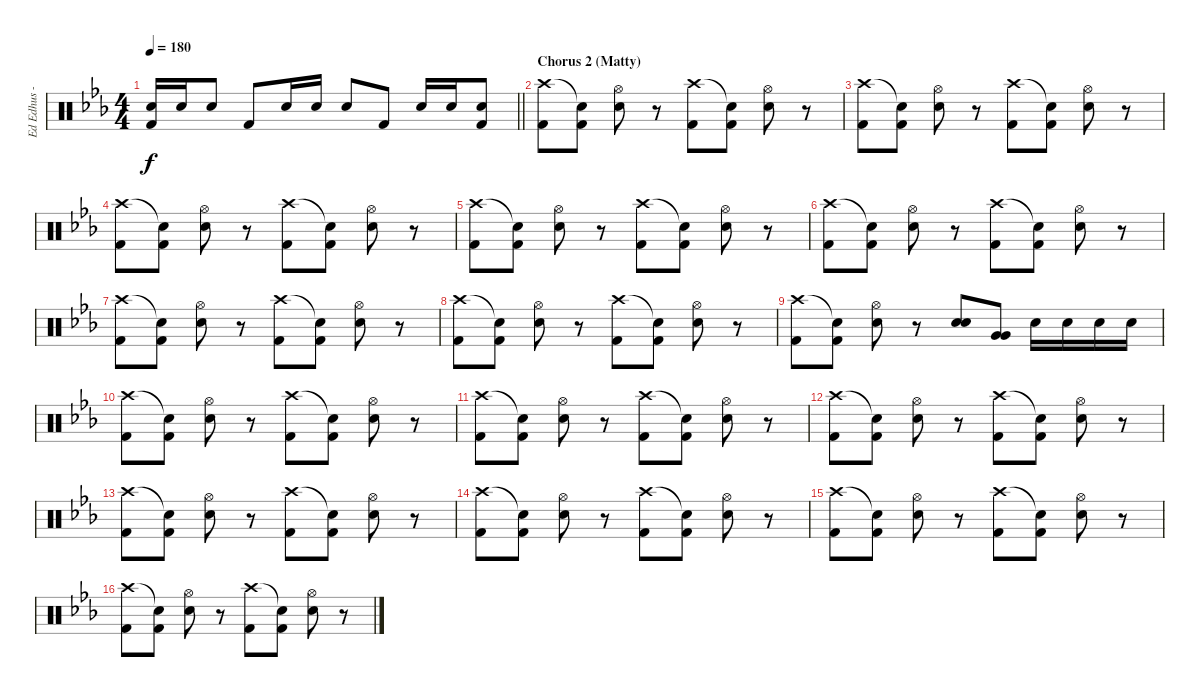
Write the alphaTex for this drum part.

\track ("Ed Edhus - Drums" "Ed Edhus -") {instrument percussion bank 127}
\staff {score}
\articulation defaults
\ts (4 4)
\tempo 180
\clef neutral
\barLineRight lightlight
\ks eb
("Snare (hit) 2" "Kick (hit) 2").16{dy f} "Snare (hit) 2".16 "Snare (hit) 2".8 "Kick (hit) 2".8 "Snare (hit) 2".16 "Snare (hit) 2".16 "Snare (hit) 2".8 "Kick (hit) 2".8 "Snare (hit) 2".16 "Snare (hit) 2".16 ("Snare (hit) 2" "Kick (hit) 2").8 |
\section ("" "Chorus 2 (Matty)")
("Crash high (hit)" "Kick (hit) 2").8 ("Snare (hit)"{t} "Kick (hit) 2").8 ("Hi-Hat (open)" "Snare (hit) 2").8 r.8 ("Crash high (hit)" "Kick (hit) 2").8 ("Snare (hit)"{t} "Kick (hit) 2").8 ("Hi-Hat (open)" "Snare (hit) 2").8 r.8 |
("Crash high (hit)" "Kick (hit) 2").8 ("Snare (hit)"{t} "Kick (hit) 2").8 ("Hi-Hat (open)" "Snare (hit) 2").8 r.8 ("Crash high (hit)" "Kick (hit) 2").8 ("Snare (hit)"{t} "Kick (hit) 2").8 ("Hi-Hat (open)" "Snare (hit) 2").8 r.8 |
("Crash high (hit)" "Kick (hit) 2").8 ("Snare (hit)"{t} "Kick (hit) 2").8 ("Hi-Hat (open)" "Snare (hit) 2").8 r.8 ("Crash high (hit)" "Kick (hit) 2").8 ("Snare (hit)"{t} "Kick (hit) 2").8 ("Hi-Hat (open)" "Snare (hit) 2").8 r.8 |
("Crash high (hit)" "Kick (hit) 2").8 ("Snare (hit)"{t} "Kick (hit) 2").8 ("Hi-Hat (open)" "Snare (hit) 2").8 r.8 ("Crash high (hit)" "Kick (hit) 2").8 ("Snare (hit)"{t} "Kick (hit) 2").8 ("Hi-Hat (open)" "Snare (hit) 2").8 r.8 |
("Crash high (hit)" "Kick (hit) 2").8 ("Snare (hit)"{t} "Kick (hit) 2").8 ("Hi-Hat (open)" "Snare (hit) 2").8 r.8 ("Crash high (hit)" "Kick (hit) 2").8 ("Snare (hit)"{t} "Kick (hit) 2").8 ("Hi-Hat (open)" "Snare (hit) 2").8 r.8 |
("Crash high (hit)" "Kick (hit) 2").8 ("Snare (hit)"{t} "Kick (hit) 2").8 ("Hi-Hat (open)" "Snare (hit) 2").8 r.8 ("Crash high (hit)" "Kick (hit) 2").8 ("Snare (hit)"{t} "Kick (hit) 2").8 ("Hi-Hat (open)" "Snare (hit) 2").8 r.8 |
("Crash high (hit)" "Kick (hit) 2").8 ("Snare (hit)"{t} "Kick (hit) 2").8 ("Hi-Hat (open)" "Snare (hit) 2").8 r.8 ("Crash high (hit)" "Kick (hit) 2").8 ("Snare (hit)"{t} "Kick (hit) 2").8 ("Hi-Hat (open)" "Snare (hit) 2").8 r.8 |
("Crash high (hit)" "Kick (hit) 2").8 ("Snare (hit)"{t} "Kick (hit) 2").8 ("Hi-Hat (open)" "Snare (hit) 2").8 r.8 ("Snare (hit) 2" "Snare (hit) 2").8 ("Very Low Tom (hit)" "Very Low Tom (hit)").8 "Snare (hit) 2".16 "Snare (hit) 2".16 "Snare (hit) 2".16 "Snare (hit) 2".16 |
("Crash high (hit)" "Kick (hit) 2").8 ("Snare (hit)"{t} "Kick (hit) 2").8 ("Hi-Hat (open)" "Snare (hit) 2").8 r.8 ("Crash high (hit)" "Kick (hit) 2").8 ("Snare (hit)"{t} "Kick (hit) 2").8 ("Hi-Hat (open)" "Snare (hit) 2").8 r.8 |
("Crash high (hit)" "Kick (hit) 2").8 ("Snare (hit)"{t} "Kick (hit) 2").8 ("Hi-Hat (open)" "Snare (hit) 2").8 r.8 ("Crash high (hit)" "Kick (hit) 2").8 ("Snare (hit)"{t} "Kick (hit) 2").8 ("Hi-Hat (open)" "Snare (hit) 2").8 r.8 |
("Crash high (hit)" "Kick (hit) 2").8 ("Snare (hit)"{t} "Kick (hit) 2").8 ("Hi-Hat (open)" "Snare (hit) 2").8 r.8 ("Crash high (hit)" "Kick (hit) 2").8 ("Snare (hit)"{t} "Kick (hit) 2").8 ("Hi-Hat (open)" "Snare (hit) 2").8 r.8 |
("Crash high (hit)" "Kick (hit) 2").8 ("Snare (hit)"{t} "Kick (hit) 2").8 ("Hi-Hat (open)" "Snare (hit) 2").8 r.8 ("Crash high (hit)" "Kick (hit) 2").8 ("Snare (hit)"{t} "Kick (hit) 2").8 ("Hi-Hat (open)" "Snare (hit) 2").8 r.8 |
("Crash high (hit)" "Kick (hit) 2").8 ("Snare (hit)"{t} "Kick (hit) 2").8 ("Hi-Hat (open)" "Snare (hit) 2").8 r.8 ("Crash high (hit)" "Kick (hit) 2").8 ("Snare (hit)"{t} "Kick (hit) 2").8 ("Hi-Hat (open)" "Snare (hit) 2").8 r.8 |
("Crash high (hit)" "Kick (hit) 2").8 ("Snare (hit)"{t} "Kick (hit) 2").8 ("Hi-Hat (open)" "Snare (hit) 2").8 r.8 ("Crash high (hit)" "Kick (hit) 2").8 ("Snare (hit)"{t} "Kick (hit) 2").8 ("Hi-Hat (open)" "Snare (hit) 2").8 r.8 |
("Crash high (hit)" "Kick (hit) 2").8 ("Snare (hit)"{t} "Kick (hit) 2").8 ("Hi-Hat (open)" "Snare (hit) 2").8 r.8 ("Crash high (hit)" "Kick (hit) 2").8 ("Snare (hit)"{t} "Kick (hit) 2").8 ("Hi-Hat (open)" "Snare (hit) 2").8 r.8
